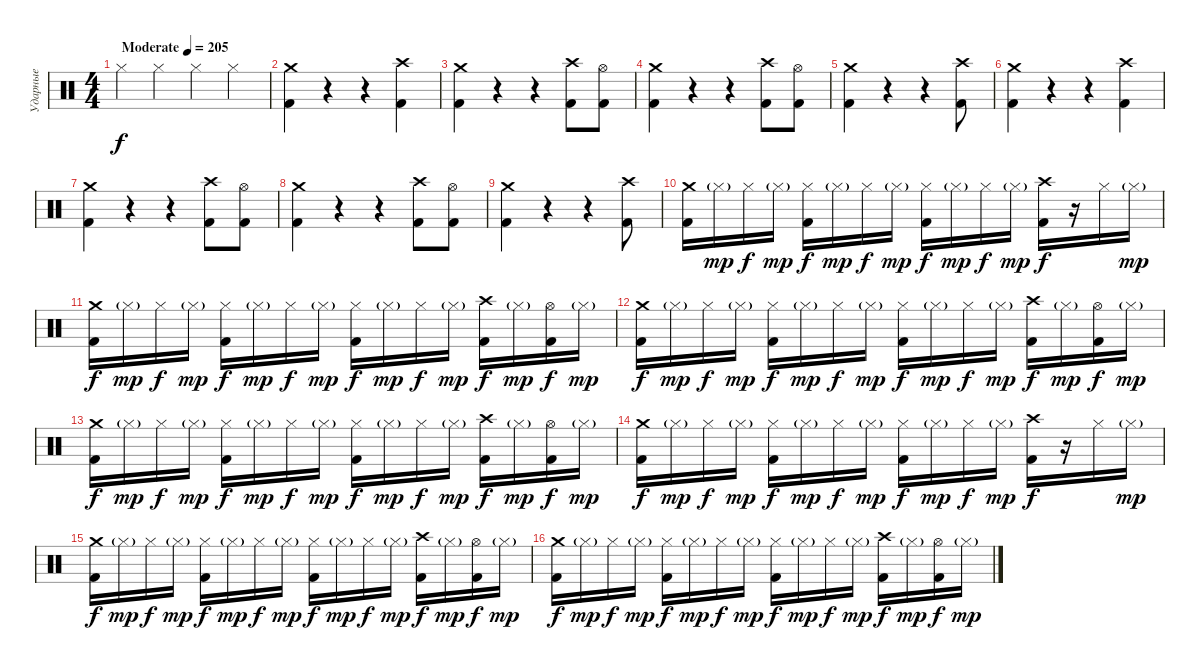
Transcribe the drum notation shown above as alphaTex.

\track ("Ударные" "Ударные") {instrument percussion}
\staff {score}
\articulation defaults
\ts (4 4)
\tempo (205 "Moderate")
\clef neutral
\ks c "Hi-Hat (closed)".4{dy f} "Hi-Hat (closed)".4 "Hi-Hat (closed)".4 "Hi-Hat (closed)".4
|
("Crash medium (hit)" "Kick (hit) 2").4 r.4 r.4 ("Crash high (hit)" "Kick (hit) 2").4 |
("Crash medium (hit)" "Kick (hit) 2").4 r.4 r.4 ("Crash high (hit)" "Kick (hit) 2").8 ("Hi-Hat (open)" "Kick (hit) 2").8 |
("Crash medium (hit)" "Kick (hit) 2").4 r.4 r.4 ("Crash high (hit)" "Kick (hit) 2").8 ("Hi-Hat (open)" "Kick (hit) 2").8 |
("Crash medium (hit)" "Kick (hit) 2").4 r.4 r.4 ("Crash high (hit)" "Kick (hit) 2").8 |
("Crash medium (hit)" "Kick (hit) 2").4 r.4 r.4 ("Crash high (hit)" "Kick (hit) 2").4 |
("Crash medium (hit)" "Kick (hit) 2").4 r.4 r.4 ("Crash high (hit)" "Kick (hit) 2").8 ("Hi-Hat (open)" "Kick (hit) 2").8 |
("Crash medium (hit)" "Kick (hit) 2").4 r.4 r.4 ("Crash high (hit)" "Kick (hit) 2").8 ("Hi-Hat (open)" "Kick (hit) 2").8 |
("Crash medium (hit)" "Kick (hit) 2").4 r.4 r.4 ("Crash high (hit)" "Kick (hit) 2").8 |
("Crash medium (hit)" "Kick (hit) 2").16 "Hi-Hat (closed)"{g}.16{dy mp} "Hi-Hat (closed)".16{dy f} "Hi-Hat (closed)"{g}.16{dy mp} ("Hi-Hat (closed)" "Kick (hit) 2").16{dy f} "Hi-Hat (closed)"{g}.16{dy mp} "Hi-Hat (closed)".16{dy f} "Hi-Hat (closed)"{g}.16{dy mp} ("Hi-Hat (closed)" "Kick (hit) 2").16{dy f} "Hi-Hat (closed)"{g}.16{dy mp} "Hi-Hat (closed)".16{dy f} "Hi-Hat (closed)"{g}.16{dy mp} ("Crash high (hit)" "Kick (hit) 2").16{dy f} r.16 "Hi-Hat (closed)".16 "Hi-Hat (closed)"{g}.16{dy mp} |
("Crash medium (hit)" "Kick (hit) 2").16{dy f} "Hi-Hat (closed)"{g}.16{dy mp} "Hi-Hat (closed)".16{dy f} "Hi-Hat (closed)"{g}.16{dy mp} ("Hi-Hat (closed)" "Kick (hit) 2").16{dy f} "Hi-Hat (closed)"{g}.16{dy mp} "Hi-Hat (closed)".16{dy f} "Hi-Hat (closed)"{g}.16{dy mp} ("Hi-Hat (closed)" "Kick (hit) 2").16{dy f} "Hi-Hat (closed)"{g}.16{dy mp} "Hi-Hat (closed)".16{dy f} "Hi-Hat (closed)"{g}.16{dy mp} ("Crash high (hit)" "Kick (hit) 2").16{dy f} "Hi-Hat (closed)"{g}.16{dy mp} ("Hi-Hat (open)" "Kick (hit) 2").16{dy f} "Hi-Hat (closed)"{g}.16{dy mp} |
("Crash medium (hit)" "Kick (hit) 2").16{dy f} "Hi-Hat (closed)"{g}.16{dy mp} "Hi-Hat (closed)".16{dy f} "Hi-Hat (closed)"{g}.16{dy mp} ("Hi-Hat (closed)" "Kick (hit) 2").16{dy f} "Hi-Hat (closed)"{g}.16{dy mp} "Hi-Hat (closed)".16{dy f} "Hi-Hat (closed)"{g}.16{dy mp} ("Hi-Hat (closed)" "Kick (hit) 2").16{dy f} "Hi-Hat (closed)"{g}.16{dy mp} "Hi-Hat (closed)".16{dy f} "Hi-Hat (closed)"{g}.16{dy mp} ("Crash high (hit)" "Kick (hit) 2").16{dy f} "Hi-Hat (closed)"{g}.16{dy mp} ("Hi-Hat (open)" "Kick (hit) 2").16{dy f} "Hi-Hat (closed)"{g}.16{dy mp} |
("Crash medium (hit)" "Kick (hit) 2").16{dy f} "Hi-Hat (closed)"{g}.16{dy mp} "Hi-Hat (closed)".16{dy f} "Hi-Hat (closed)"{g}.16{dy mp} ("Hi-Hat (closed)" "Kick (hit) 2").16{dy f} "Hi-Hat (closed)"{g}.16{dy mp} "Hi-Hat (closed)".16{dy f} "Hi-Hat (closed)"{g}.16{dy mp} ("Hi-Hat (closed)" "Kick (hit) 2").16{dy f} "Hi-Hat (closed)"{g}.16{dy mp} "Hi-Hat (closed)".16{dy f} "Hi-Hat (closed)"{g}.16{dy mp} ("Crash high (hit)" "Kick (hit) 2").16{dy f} "Hi-Hat (closed)"{g}.16{dy mp} ("Hi-Hat (open)" "Kick (hit) 2").16{dy f} "Hi-Hat (closed)"{g}.16{dy mp} |
("Crash medium (hit)" "Kick (hit) 2").16{dy f} "Hi-Hat (closed)"{g}.16{dy mp} "Hi-Hat (closed)".16{dy f} "Hi-Hat (closed)"{g}.16{dy mp} ("Hi-Hat (closed)" "Kick (hit) 2").16{dy f} "Hi-Hat (closed)"{g}.16{dy mp} "Hi-Hat (closed)".16{dy f} "Hi-Hat (closed)"{g}.16{dy mp} ("Hi-Hat (closed)" "Kick (hit) 2").16{dy f} "Hi-Hat (closed)"{g}.16{dy mp} "Hi-Hat (closed)".16{dy f} "Hi-Hat (closed)"{g}.16{dy mp} ("Crash high (hit)" "Kick (hit) 2").16{dy f} r.16 "Hi-Hat (closed)".16 "Hi-Hat (closed)"{g}.16{dy mp} |
("Crash medium (hit)" "Kick (hit) 2").16{dy f} "Hi-Hat (closed)"{g}.16{dy mp} "Hi-Hat (closed)".16{dy f} "Hi-Hat (closed)"{g}.16{dy mp} ("Hi-Hat (closed)" "Kick (hit) 2").16{dy f} "Hi-Hat (closed)"{g}.16{dy mp} "Hi-Hat (closed)".16{dy f} "Hi-Hat (closed)"{g}.16{dy mp} ("Hi-Hat (closed)" "Kick (hit) 2").16{dy f} "Hi-Hat (closed)"{g}.16{dy mp} "Hi-Hat (closed)".16{dy f} "Hi-Hat (closed)"{g}.16{dy mp} ("Crash high (hit)" "Kick (hit) 2").16{dy f} "Hi-Hat (closed)"{g}.16{dy mp} ("Hi-Hat (open)" "Kick (hit) 2").16{dy f} "Hi-Hat (closed)"{g}.16{dy mp} |
("Crash medium (hit)" "Kick (hit) 2").16{dy f} "Hi-Hat (closed)"{g}.16{dy mp} "Hi-Hat (closed)".16{dy f} "Hi-Hat (closed)"{g}.16{dy mp} ("Hi-Hat (closed)" "Kick (hit) 2").16{dy f} "Hi-Hat (closed)"{g}.16{dy mp} "Hi-Hat (closed)".16{dy f} "Hi-Hat (closed)"{g}.16{dy mp} ("Hi-Hat (closed)" "Kick (hit) 2").16{dy f} "Hi-Hat (closed)"{g}.16{dy mp} "Hi-Hat (closed)".16{dy f} "Hi-Hat (closed)"{g}.16{dy mp} ("Crash high (hit)" "Kick (hit) 2").16{dy f} "Hi-Hat (closed)"{g}.16{dy mp} ("Hi-Hat (open)" "Kick (hit) 2").16{dy f} "Hi-Hat (closed)"{g}.16{dy mp}
